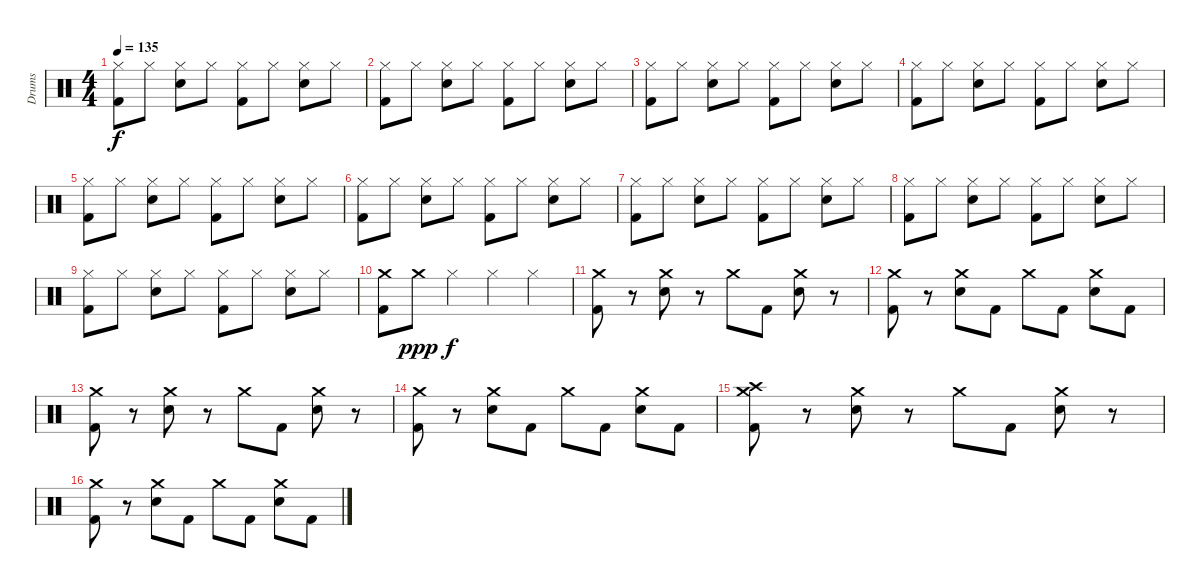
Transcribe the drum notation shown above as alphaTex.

\track ("Drums" "Drums") {instrument percussion}
\staff {score}
\articulation defaults
\ts (4 4)
\tempo 135
\clef neutral
\ks c
("Hi-Hat (closed)" "Kick (hit) 2").8{dy f} "Hi-Hat (closed)".8 ("Hi-Hat (closed)" "Electric Snare (hit)").8 "Hi-Hat (closed)".8 ("Hi-Hat (closed)" "Kick (hit) 2").8 "Hi-Hat (closed)".8 ("Hi-Hat (closed)" "Electric Snare (hit)").8 "Hi-Hat (closed)".8 |
("Hi-Hat (closed)" "Kick (hit) 2").8 "Hi-Hat (closed)".8 ("Hi-Hat (closed)" "Electric Snare (hit)").8 "Hi-Hat (closed)".8 ("Hi-Hat (closed)" "Kick (hit) 2").8 "Hi-Hat (closed)".8 ("Hi-Hat (closed)" "Electric Snare (hit)").8 "Hi-Hat (closed)".8 |
("Hi-Hat (closed)" "Kick (hit) 2").8 "Hi-Hat (closed)".8 ("Hi-Hat (closed)" "Electric Snare (hit)").8 "Hi-Hat (closed)".8 ("Hi-Hat (closed)" "Kick (hit) 2").8 "Hi-Hat (closed)".8 ("Hi-Hat (closed)" "Electric Snare (hit)").8 "Hi-Hat (closed)".8 |
("Hi-Hat (closed)" "Kick (hit) 2").8 "Hi-Hat (closed)".8 ("Hi-Hat (closed)" "Electric Snare (hit)").8 "Hi-Hat (closed)".8 ("Hi-Hat (closed)" "Kick (hit) 2").8 "Hi-Hat (closed)".8 ("Hi-Hat (closed)" "Electric Snare (hit)").8 "Hi-Hat (closed)".8 |
("Hi-Hat (closed)" "Kick (hit) 2").8 "Hi-Hat (closed)".8 ("Hi-Hat (closed)" "Electric Snare (hit)").8 "Hi-Hat (closed)".8 ("Hi-Hat (closed)" "Kick (hit) 2").8 "Hi-Hat (closed)".8 ("Hi-Hat (closed)" "Electric Snare (hit)").8 "Hi-Hat (closed)".8 |
("Hi-Hat (closed)" "Kick (hit) 2").8 "Hi-Hat (closed)".8 ("Hi-Hat (closed)" "Electric Snare (hit)").8 "Hi-Hat (closed)".8 ("Hi-Hat (closed)" "Kick (hit) 2").8 "Hi-Hat (closed)".8 ("Hi-Hat (closed)" "Electric Snare (hit)").8 "Hi-Hat (closed)".8 |
("Hi-Hat (closed)" "Kick (hit) 2").8 "Hi-Hat (closed)".8 ("Hi-Hat (closed)" "Electric Snare (hit)").8 "Hi-Hat (closed)".8 ("Hi-Hat (closed)" "Kick (hit) 2").8 "Hi-Hat (closed)".8 ("Hi-Hat (closed)" "Electric Snare (hit)").8 "Hi-Hat (closed)".8 |
("Hi-Hat (closed)" "Kick (hit) 2").8 "Hi-Hat (closed)".8 ("Hi-Hat (closed)" "Electric Snare (hit)").8 "Hi-Hat (closed)".8 ("Hi-Hat (closed)" "Kick (hit) 2").8 "Hi-Hat (closed)".8 ("Hi-Hat (closed)" "Electric Snare (hit)").8 "Hi-Hat (closed)".8 |
("Hi-Hat (closed)" "Kick (hit) 2").8 "Hi-Hat (closed)".8 ("Hi-Hat (closed)" "Electric Snare (hit)").8 "Hi-Hat (closed)".8 ("Hi-Hat (closed)" "Kick (hit) 2").8 "Hi-Hat (closed)".8 ("Hi-Hat (closed)" "Electric Snare (hit)").8 "Hi-Hat (closed)".8 |
("Crash medium (hit)" "Kick (hit) 2").8 "Crash medium (hit)".8{dy ppp} "Hi-Hat (closed)".4{dy f} "Hi-Hat (closed)".4 "Hi-Hat (closed)".4 |
("Crash medium (hit)" "Kick (hit) 2").8 r.8 ("Crash medium (hit)" "Electric Snare (hit)").8 r.8 "Crash medium (hit)".8 "Kick (hit) 2".8 ("Crash medium (hit)" "Electric Snare (hit)").8 r.8 |
("Crash medium (hit)" "Kick (hit) 2").8 r.8 ("Crash medium (hit)" "Electric Snare (hit)").8 "Kick (hit) 2".8 "Crash medium (hit)".8 "Kick (hit) 2".8 ("Crash medium (hit)" "Electric Snare (hit)").8 "Kick (hit) 2".8 |
("Crash medium (hit)" "Kick (hit) 2").8 r.8 ("Crash medium (hit)" "Electric Snare (hit)").8 r.8 "Crash medium (hit)".8 "Kick (hit) 2".8 ("Crash medium (hit)" "Electric Snare (hit)").8 r.8 |
("Crash medium (hit)" "Kick (hit) 2").8 r.8 ("Crash medium (hit)" "Electric Snare (hit)").8 "Kick (hit) 2".8 "Crash medium (hit)".8 "Kick (hit) 2".8 ("Crash medium (hit)" "Electric Snare (hit)").8 "Kick (hit) 2".8 |
("Crash high (hit)" "Crash medium (hit)" "Kick (hit) 2").8 r.8 ("Crash medium (hit)" "Electric Snare (hit)").8 r.8 "Crash medium (hit)".8 "Kick (hit) 2".8 ("Crash medium (hit)" "Electric Snare (hit)").8 r.8 |
("Crash medium (hit)" "Kick (hit) 2").8 r.8 ("Crash medium (hit)" "Electric Snare (hit)").8 "Kick (hit) 2".8 "Crash medium (hit)".8 "Kick (hit) 2".8 ("Crash medium (hit)" "Electric Snare (hit)").8 "Kick (hit) 2".8
